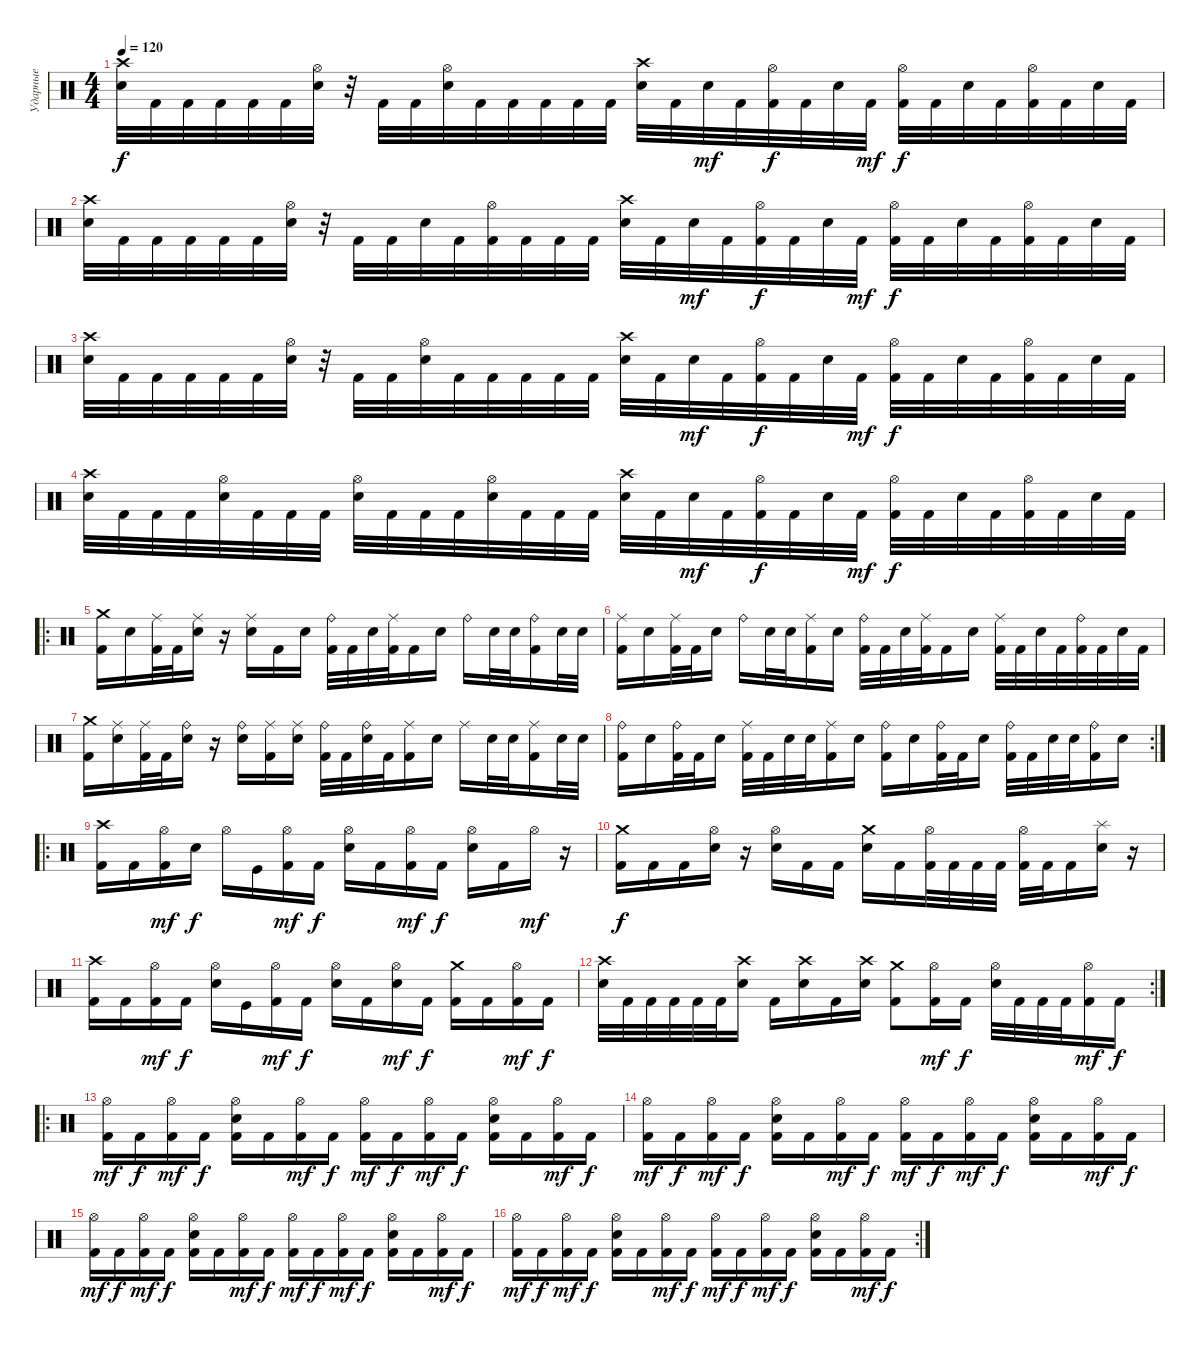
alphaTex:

\track ("Ударные" "Ударные") {instrument percussion}
\staff {score}
\articulation defaults
\ts (4 4)
\tempo 120
\clef neutral
\ks c
("Crash high (hit)" "Electric Snare (hit)").32{dy f} "Kick (hit) 2".32 "Kick (hit) 2".32 "Kick (hit) 2".32 "Kick (hit) 2".32 "Kick (hit) 2".32 ("Hi-Hat (open)" "Electric Snare (hit)").32 r.32 "Kick (hit) 2".32 "Kick (hit) 2".32 ("Hi-Hat (open)" "Electric Snare (hit)").32 "Kick (hit) 2".32 "Kick (hit) 2".32 "Kick (hit) 2".32 "Kick (hit) 2".32 "Kick (hit) 2".32 ("Crash high (hit)" "Electric Snare (hit)").32 "Kick (hit) 2".32 "Electric Snare (hit)".32{dy mf} "Kick (hit) 2".32 ("Hi-Hat (open)" "Kick (hit) 2").32{dy f} "Kick (hit) 2".32 "Electric Snare (hit)".32 "Kick (hit) 2".32{dy mf} ("Hi-Hat (open)" "Kick (hit) 2").32{dy f} "Kick (hit) 2".32 "Electric Snare (hit)".32 "Kick (hit) 2".32 ("Hi-Hat (open)" "Kick (hit) 2").32 "Kick (hit) 2".32 "Electric Snare (hit)".32 "Kick (hit) 2".32 |
("Crash high (hit)" "Electric Snare (hit)").32 "Kick (hit) 2".32 "Kick (hit) 2".32 "Kick (hit) 2".32 "Kick (hit) 2".32 "Kick (hit) 2".32 ("Hi-Hat (open)" "Electric Snare (hit)").32 r.32 "Kick (hit) 2".32 "Kick (hit) 2".32 "Electric Snare (hit)".32 "Kick (hit) 2".32 ("Hi-Hat (open)" "Kick (hit) 2").32 "Kick (hit) 2".32 "Kick (hit) 2".32 "Kick (hit) 2".32 ("Crash high (hit)" "Electric Snare (hit)").32 "Kick (hit) 2".32 "Electric Snare (hit)".32{dy mf} "Kick (hit) 2".32 ("Hi-Hat (open)" "Kick (hit) 2").32{dy f} "Kick (hit) 2".32 "Electric Snare (hit)".32 "Kick (hit) 2".32{dy mf} ("Hi-Hat (open)" "Kick (hit) 2").32{dy f} "Kick (hit) 2".32 "Electric Snare (hit)".32 "Kick (hit) 2".32 ("Hi-Hat (open)" "Kick (hit) 2").32 "Kick (hit) 2".32 "Electric Snare (hit)".32 "Kick (hit) 2".32 |
("Crash high (hit)" "Electric Snare (hit)").32 "Kick (hit) 2".32 "Kick (hit) 2".32 "Kick (hit) 2".32 "Kick (hit) 2".32 "Kick (hit) 2".32 ("Hi-Hat (open)" "Electric Snare (hit)").32 r.32 "Kick (hit) 2".32 "Kick (hit) 2".32 ("Hi-Hat (open)" "Electric Snare (hit)").32 "Kick (hit) 2".32 "Kick (hit) 2".32 "Kick (hit) 2".32 "Kick (hit) 2".32 "Kick (hit) 2".32 ("Crash high (hit)" "Electric Snare (hit)").32 "Kick (hit) 2".32 "Electric Snare (hit)".32{dy mf} "Kick (hit) 2".32 ("Hi-Hat (open)" "Kick (hit) 2").32{dy f} "Kick (hit) 2".32 "Electric Snare (hit)".32 "Kick (hit) 2".32{dy mf} ("Hi-Hat (open)" "Kick (hit) 2").32{dy f} "Kick (hit) 2".32 "Electric Snare (hit)".32 "Kick (hit) 2".32 ("Hi-Hat (open)" "Kick (hit) 2").32 "Kick (hit) 2".32 "Electric Snare (hit)".32 "Kick (hit) 2".32 |
("Crash high (hit)" "Electric Snare (hit)").32 "Kick (hit) 2".32 "Kick (hit) 2".32 "Kick (hit) 2".32 ("Hi-Hat (open)" "Electric Snare (hit)").32 "Kick (hit) 2".32 "Kick (hit) 2".32 "Kick (hit) 2".32 ("Hi-Hat (open)" "Electric Snare (hit)").32 "Kick (hit) 2".32 "Kick (hit) 2".32 "Kick (hit) 2".32 ("Hi-Hat (open)" "Electric Snare (hit)").32 "Kick (hit) 2".32 "Kick (hit) 2".32 "Kick (hit) 2".32 ("Crash high (hit)" "Electric Snare (hit)").32 "Kick (hit) 2".32 "Electric Snare (hit)".32{dy mf} "Kick (hit) 2".32 ("Hi-Hat (open)" "Kick (hit) 2").32{dy f} "Kick (hit) 2".32 "Electric Snare (hit)".32 "Kick (hit) 2".32{dy mf} ("Hi-Hat (open)" "Kick (hit) 2").32{dy f} "Kick (hit) 2".32 "Electric Snare (hit)".32 "Kick (hit) 2".32 ("Hi-Hat (open)" "Kick (hit) 2").32 "Kick (hit) 2".32 "Electric Snare (hit)".32 "Kick (hit) 2".32 |
\ro
("Crash medium (hit)" "Kick (hit) 2").16 "Electric Snare (hit)".16 ("Ride (middle)" "Kick (hit) 2").32 "Kick (hit) 2".32 ("Ride (middle)" "Electric Snare (hit)").16 r.16 ("Ride (middle)" "Electric Snare (hit)").16 "Kick (hit) 2".16 "Electric Snare (hit)".16 ("Ride (bell)" "Kick (hit) 2").32 "Kick (hit) 2".32 "Electric Snare (hit)".32 ("Ride (middle)" "Kick (hit) 2").32 "Kick (hit) 2".16 "Electric Snare (hit)".16 "Ride (bell)".16 "Electric Snare (hit)".32 "Electric Snare (hit)".32 ("Ride (bell)" "Kick (hit) 2").16 "Electric Snare (hit)".32 "Electric Snare (hit)".32 |
("Ride (middle)" "Kick (hit) 2").16 "Electric Snare (hit)".16 ("Ride (middle)" "Kick (hit) 2").32 "Kick (hit) 2".32 "Electric Snare (hit)".16 "Ride (bell)".16 "Electric Snare (hit)".32 "Electric Snare (hit)".32 ("Ride (middle)" "Kick (hit) 2").16 "Electric Snare (hit)".16 ("Ride (bell)" "Kick (hit) 2").32 "Kick (hit) 2".32 "Electric Snare (hit)".32 ("Ride (middle)" "Kick (hit) 2").32 "Kick (hit) 2".16 "Electric Snare (hit)".16 ("Ride (middle)" "Kick (hit) 2").32 "Kick (hit) 2".32 "Electric Snare (hit)".32 "Kick (hit) 2".32 ("Ride (bell)" "Kick (hit) 2").32 "Kick (hit) 2".32 "Electric Snare (hit)".32 "Kick (hit) 2".32 |
("Crash medium (hit)" "Kick (hit) 2").16 ("Ride (middle)" "Electric Snare (hit)").16 ("Ride (middle)" "Kick (hit) 2").32 "Kick (hit) 2".32 ("Ride (bell)" "Electric Snare (hit)").16 r.16 ("Ride (bell)" "Electric Snare (hit)").16 ("Ride (middle)" "Kick (hit) 2").16 ("Ride (middle)" "Electric Snare (hit)").16 ("Ride (bell)" "Kick (hit) 2").32 "Kick (hit) 2".32 ("Ride (bell)" "Electric Snare (hit)").32 "Kick (hit) 2".32 ("Ride (middle)" "Kick (hit) 2").16 "Electric Snare (hit)".16 "Ride (middle)".16 "Electric Snare (hit)".32 "Electric Snare (hit)".32 ("Ride (middle)" "Kick (hit) 2").16 "Electric Snare (hit)".32 "Electric Snare (hit)".32 |
\rc 2
("Ride (bell)" "Kick (hit) 2").16 "Electric Snare (hit)".16 ("Ride (bell)" "Kick (hit) 2").32 "Kick (hit) 2".32 "Electric Snare (hit)".16 ("Ride (middle)" "Kick (hit) 2").32 "Kick (hit) 2".32 "Electric Snare (hit)".32 "Electric Snare (hit)".32 ("Ride (middle)" "Kick (hit) 2").16 "Electric Snare (hit)".16 ("Ride (bell)" "Kick (hit) 2").16 "Electric Snare (hit)".16 ("Ride (bell)" "Kick (hit) 2").32 "Kick (hit) 2".32 "Electric Snare (hit)".16 ("Ride (bell)" "Kick (hit) 2").32 "Kick (hit) 2".32 "Electric Snare (hit)".32 "Electric Snare (hit)".32 ("Ride (bell)" "Kick (hit) 2").16 "Electric Snare (hit)".16 |
\ro
("Crash high (hit)" "Kick (hit) 2").16 "Kick (hit) 2".16 ("Hi-Hat (open)" "Kick (hit) 2").16{dy mf} "Electric Snare (hit)".16{dy f} "Hi-Hat (open)".16 "Kick (hit)".16 ("Hi-Hat (open)" "Kick (hit) 2").16{dy mf} "Kick (hit) 2".16{dy f} ("Hi-Hat (open)" "Electric Snare (hit)").16 "Kick (hit) 2".16 ("Hi-Hat (open)" "Kick (hit) 2").16{dy mf} "Kick (hit) 2".16{dy f} ("Hi-Hat (open)" "Electric Snare (hit)").16 "Kick (hit) 2".16 "Hi-Hat (open)".16{dy mf} r.16 |
("Crash medium (hit)" "Kick (hit) 2").16{dy f} "Kick (hit) 2".16 "Kick (hit) 2".16 ("Hi-Hat (open)" "Electric Snare (hit)").16 r.16 ("Hi-Hat (open)" "Electric Snare (hit)").16 "Kick (hit) 2".16 "Kick (hit) 2".16 ("Crash medium (hit)" "Electric Snare (hit)").16 "Kick (hit) 2".16 ("Hi-Hat (open)" "Kick (hit) 2").32 "Kick (hit) 2".32 "Kick (hit) 2".32 "Kick (hit) 2".32 ("Hi-Hat (open)" "Kick (hit) 2").32 "Kick (hit) 2".32 "Kick (hit) 2".16 ("Splash (hit)" "Electric Snare (hit)").16 r.16 |
("Crash high (hit)" "Kick (hit) 2").16 "Kick (hit) 2".16 ("Hi-Hat (open)" "Kick (hit) 2").16{dy mf} "Kick (hit) 2".16{dy f} ("Hi-Hat (open)" "Electric Snare (hit)").16 "Kick (hit)".16 ("Hi-Hat (open)" "Kick (hit) 2").16{dy mf} "Kick (hit) 2".16{dy f} ("Hi-Hat (open)" "Electric Snare (hit)").16 "Kick (hit) 2".16 ("Hi-Hat (open)" "Electric Snare (hit)").16{dy mf} "Kick (hit) 2".16{dy f} ("Crash medium (hit)" "Kick (hit) 2").16 "Kick (hit) 2".16 ("Hi-Hat (open)" "Kick (hit) 2").16{dy mf} "Kick (hit) 2".16{dy f} |
\rc 2
("Crash high (hit)" "Electric Snare (hit)").32 "Kick (hit) 2".32 "Kick (hit) 2".32 "Kick (hit) 2".32 "Kick (hit) 2".32 "Kick (hit) 2".32 ("Crash high (hit)" "Electric Snare (hit)").16 "Kick (hit) 2".16 ("Crash high (hit)" "Electric Snare (hit)").16 "Kick (hit) 2".16 ("Crash high (hit)" "Electric Snare (hit)").16 ("Crash medium (hit)" "Kick (hit) 2").8 ("Hi-Hat (open)" "Kick (hit) 2").16{dy mf} "Kick (hit) 2".16{dy f} ("Hi-Hat (open)" "Electric Snare (hit)").32 "Kick (hit) 2".32 "Kick (hit) 2".32 "Kick (hit) 2".32 ("Hi-Hat (open)" "Kick (hit) 2").16{dy mf} "Kick (hit) 2".16{dy f} |
\ro
("Hi-Hat (open)" "Kick (hit) 2").16{dy mf} "Kick (hit) 2".16{dy f} ("Hi-Hat (open)" "Kick (hit) 2").16{dy mf} "Kick (hit) 2".16{dy f} ("Hi-Hat (open)" "Electric Snare (hit)" "Kick (hit) 2").16 "Kick (hit) 2".16 ("Hi-Hat (open)" "Kick (hit) 2").16{dy mf} "Kick (hit) 2".16{dy f} ("Hi-Hat (open)" "Kick (hit) 2").16{dy mf} "Kick (hit) 2".16{dy f} ("Hi-Hat (open)" "Kick (hit) 2").16{dy mf} "Kick (hit) 2".16{dy f} ("Hi-Hat (open)" "Electric Snare (hit)" "Kick (hit) 2").16 "Kick (hit) 2".16 ("Hi-Hat (open)" "Kick (hit) 2").16{dy mf} "Kick (hit) 2".16{dy f} |
("Hi-Hat (open)" "Kick (hit) 2").16{dy mf} "Kick (hit) 2".16{dy f} ("Hi-Hat (open)" "Kick (hit) 2").16{dy mf} "Kick (hit) 2".16{dy f} ("Hi-Hat (open)" "Electric Snare (hit)" "Kick (hit) 2").16 "Kick (hit) 2".16 ("Hi-Hat (open)" "Kick (hit) 2").16{dy mf} "Kick (hit) 2".16{dy f} ("Hi-Hat (open)" "Kick (hit) 2").16{dy mf} "Kick (hit) 2".16{dy f} ("Hi-Hat (open)" "Kick (hit) 2").16{dy mf} "Kick (hit) 2".16{dy f} ("Hi-Hat (open)" "Electric Snare (hit)" "Kick (hit) 2").16 "Kick (hit) 2".16 ("Hi-Hat (open)" "Kick (hit) 2").16{dy mf} "Kick (hit) 2".16{dy f} |
("Hi-Hat (open)" "Kick (hit) 2").16{dy mf} "Kick (hit) 2".16{dy f} ("Hi-Hat (open)" "Kick (hit) 2").16{dy mf} "Kick (hit) 2".16{dy f} ("Hi-Hat (open)" "Electric Snare (hit)" "Kick (hit) 2").16 "Kick (hit) 2".16 ("Hi-Hat (open)" "Kick (hit) 2").16{dy mf} "Kick (hit) 2".16{dy f} ("Hi-Hat (open)" "Kick (hit) 2").16{dy mf} "Kick (hit) 2".16{dy f} ("Hi-Hat (open)" "Kick (hit) 2").16{dy mf} "Kick (hit) 2".16{dy f} ("Hi-Hat (open)" "Electric Snare (hit)" "Kick (hit) 2").16 "Kick (hit) 2".16 ("Hi-Hat (open)" "Kick (hit) 2").16{dy mf} "Kick (hit) 2".16{dy f} |
\rc 2
("Hi-Hat (open)" "Kick (hit) 2").16{dy mf} "Kick (hit) 2".16{dy f} ("Hi-Hat (open)" "Kick (hit) 2").16{dy mf} "Kick (hit) 2".16{dy f} ("Hi-Hat (open)" "Electric Snare (hit)" "Kick (hit) 2").16 "Kick (hit) 2".16 ("Hi-Hat (open)" "Kick (hit) 2").16{dy mf} "Kick (hit) 2".16{dy f} ("Hi-Hat (open)" "Kick (hit) 2").16{dy mf} "Kick (hit) 2".16{dy f} ("Hi-Hat (open)" "Kick (hit) 2").16{dy mf} "Kick (hit) 2".16{dy f} ("Hi-Hat (open)" "Electric Snare (hit)" "Kick (hit) 2").16 "Kick (hit) 2".16 ("Hi-Hat (open)" "Kick (hit) 2").16{dy mf} "Kick (hit) 2".16{dy f}
